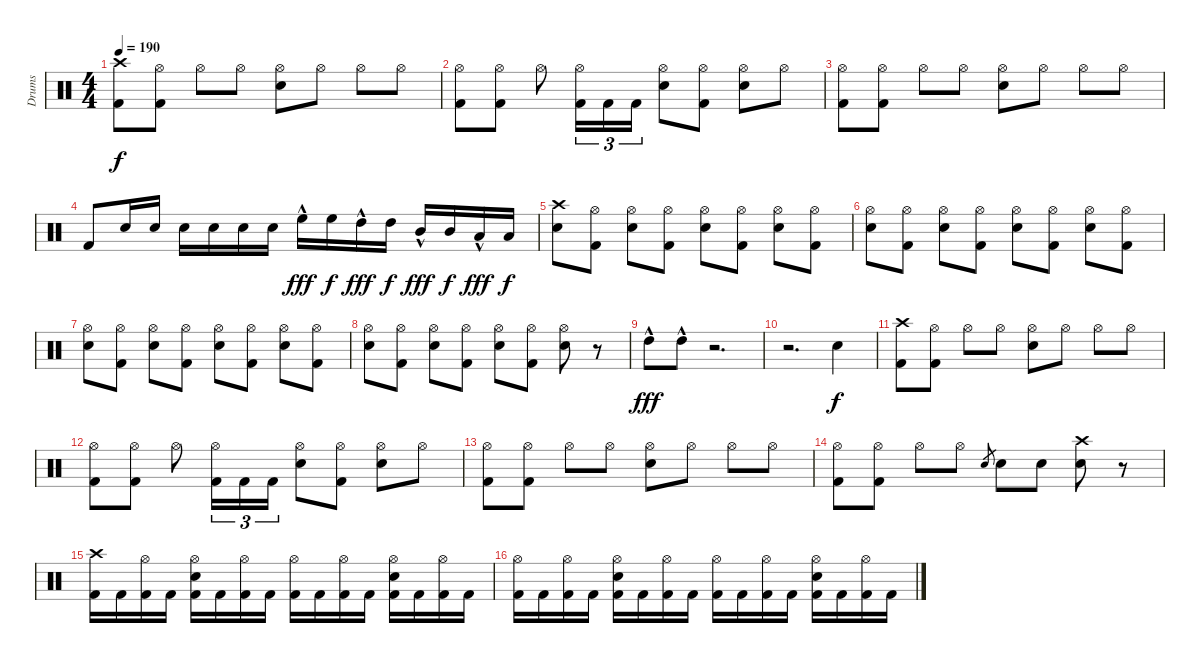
\track ("Drums" "Drums") {instrument percussion}
\staff {score}
\articulation defaults
\ts (4 4)
\tempo 190
\clef neutral
\ks aminor
("Kick (hit) 2" "Crash high (hit)").8{dy f} ("Kick (hit) 2" "Hi-Hat (open)").8 "Hi-Hat (open)".8 "Hi-Hat (open)".8 ("Electric Snare (hit)" "Hi-Hat (open)").8 "Hi-Hat (open)".8 "Hi-Hat (open)".8 "Hi-Hat (open)".8 |
("Kick (hit) 2" "Hi-Hat (open)").8 ("Kick (hit) 2" "Hi-Hat (open)").8 "Hi-Hat (open)".8 ("Kick (hit) 2" "Hi-Hat (open)").16{tu (3 2)} "Kick (hit) 2".16{tu (3 2)} "Kick (hit) 2".16{tu (3 2)} ("Electric Snare (hit)" "Hi-Hat (open)").8 ("Kick (hit) 2" "Hi-Hat (open)").8 ("Electric Snare (hit)" "Hi-Hat (open)").8 "Hi-Hat (open)".8 |
("Kick (hit) 2" "Hi-Hat (open)").8 ("Kick (hit) 2" "Hi-Hat (open)").8 "Hi-Hat (open)".8 "Hi-Hat (open)".8 ("Electric Snare (hit)" "Hi-Hat (open)").8 "Hi-Hat (open)".8 "Hi-Hat (open)".8 "Hi-Hat (open)".8 |
"Kick (hit) 2".8 "Electric Snare (hit)".16 "Electric Snare (hit)".16 "Electric Snare (hit)".16 "Electric Snare (hit)".16 "Electric Snare (hit)".16 "Electric Snare (hit)".16 "High Floor Tom (hit)"{hac}.16{dy fff} "High Floor Tom (hit)".16{dy f} "High Tom (hit)"{hac}.16{dy fff} "High Tom (hit)".16{dy f} "Mid Tom (hit)"{hac}.16{dy fff} "Mid Tom (hit)".16{dy f} "Low Tom (hit)"{hac}.16{dy fff} "Low Tom (hit)".16{dy f} |
("Electric Snare (hit)" "Crash high (hit)").8 ("Kick (hit) 2" "Hi-Hat (open)").8 ("Electric Snare (hit)" "Hi-Hat (open)").8 ("Kick (hit) 2" "Hi-Hat (open)").8 ("Electric Snare (hit)" "Hi-Hat (open)").8 ("Kick (hit) 2" "Hi-Hat (open)").8 ("Electric Snare (hit)" "Hi-Hat (open)").8 ("Kick (hit) 2" "Hi-Hat (open)").8 |
("Electric Snare (hit)" "Hi-Hat (open)").8 ("Kick (hit) 2" "Hi-Hat (open)").8 ("Electric Snare (hit)" "Hi-Hat (open)").8 ("Kick (hit) 2" "Hi-Hat (open)").8 ("Electric Snare (hit)" "Hi-Hat (open)").8 ("Kick (hit) 2" "Hi-Hat (open)").8 ("Electric Snare (hit)" "Hi-Hat (open)").8 ("Kick (hit) 2" "Hi-Hat (open)").8 |
("Electric Snare (hit)" "Hi-Hat (open)").8 ("Kick (hit) 2" "Hi-Hat (open)").8 ("Electric Snare (hit)" "Hi-Hat (open)").8 ("Kick (hit) 2" "Hi-Hat (open)").8 ("Electric Snare (hit)" "Hi-Hat (open)").8 ("Kick (hit) 2" "Hi-Hat (open)").8 ("Electric Snare (hit)" "Hi-Hat (open)").8 ("Kick (hit) 2" "Hi-Hat (open)").8 |
("Electric Snare (hit)" "Hi-Hat (open)").8 ("Kick (hit) 2" "Hi-Hat (open)").8 ("Electric Snare (hit)" "Hi-Hat (open)").8 ("Kick (hit) 2" "Hi-Hat (open)").8 ("Electric Snare (hit)" "Hi-Hat (open)").8 ("Kick (hit) 2" "Hi-Hat (open)").8 ("Electric Snare (hit)" "Hi-Hat (open)").8 r.8 |
"High Tom (hit)"{hac}.8{dy fff} "High Tom (hit)"{hac}.8 r.2{d} |
r.2{d} "Electric Snare (hit)".4{dy f} |
("Kick (hit) 2" "Crash high (hit)").8 ("Kick (hit) 2" "Hi-Hat (open)").8 "Hi-Hat (open)".8 "Hi-Hat (open)".8 ("Electric Snare (hit)" "Hi-Hat (open)").8 "Hi-Hat (open)".8 "Hi-Hat (open)".8 "Hi-Hat (open)".8 |
("Kick (hit) 2" "Hi-Hat (open)").8 ("Kick (hit) 2" "Hi-Hat (open)").8 "Hi-Hat (open)".8 ("Kick (hit) 2" "Hi-Hat (open)").16{tu (3 2)} "Kick (hit) 2".16{tu (3 2)} "Kick (hit) 2".16{tu (3 2)} ("Electric Snare (hit)" "Hi-Hat (open)").8 ("Kick (hit) 2" "Hi-Hat (open)").8 ("Electric Snare (hit)" "Hi-Hat (open)").8 "Hi-Hat (open)".8 |
("Kick (hit) 2" "Hi-Hat (open)").8 ("Kick (hit) 2" "Hi-Hat (open)").8 "Hi-Hat (open)".8 "Hi-Hat (open)".8 ("Electric Snare (hit)" "Hi-Hat (open)").8 "Hi-Hat (open)".8 "Hi-Hat (open)".8 "Hi-Hat (open)".8 |
("Kick (hit) 2" "Hi-Hat (open)").8 ("Kick (hit) 2" "Hi-Hat (open)").8 "Hi-Hat (open)".8 "Hi-Hat (open)".8 "Electric Snare (hit)".8{gr} "Electric Snare (hit)".8 "Electric Snare (hit)".8 ("Electric Snare (hit)" "Crash high (hit)").8 r.8 |
("Kick (hit) 2" "Crash high (hit)").16 "Kick (hit) 2".16 ("Kick (hit) 2" "Hi-Hat (open)").16 "Kick (hit) 2".16 ("Kick (hit) 2" "Electric Snare (hit)" "Hi-Hat (open)").16 "Kick (hit) 2".16 ("Kick (hit) 2" "Hi-Hat (open)").16 "Kick (hit) 2".16 ("Kick (hit) 2" "Hi-Hat (open)").16 "Kick (hit) 2".16 ("Kick (hit) 2" "Hi-Hat (open)").16 "Kick (hit) 2".16 ("Kick (hit) 2" "Electric Snare (hit)" "Hi-Hat (open)").16 "Kick (hit) 2".16 ("Kick (hit) 2" "Hi-Hat (open)").16 "Kick (hit) 2".16 |
("Kick (hit) 2" "Hi-Hat (open)").16 "Kick (hit) 2".16 ("Kick (hit) 2" "Hi-Hat (open)").16 "Kick (hit) 2".16 ("Kick (hit) 2" "Electric Snare (hit)" "Hi-Hat (open)").16 "Kick (hit) 2".16 ("Kick (hit) 2" "Hi-Hat (open)").16 "Kick (hit) 2".16 ("Kick (hit) 2" "Hi-Hat (open)").16 "Kick (hit) 2".16 ("Kick (hit) 2" "Hi-Hat (open)").16 "Kick (hit) 2".16 ("Kick (hit) 2" "Electric Snare (hit)" "Hi-Hat (open)").16 "Kick (hit) 2".16 ("Kick (hit) 2" "Hi-Hat (open)").16 "Kick (hit) 2".16
